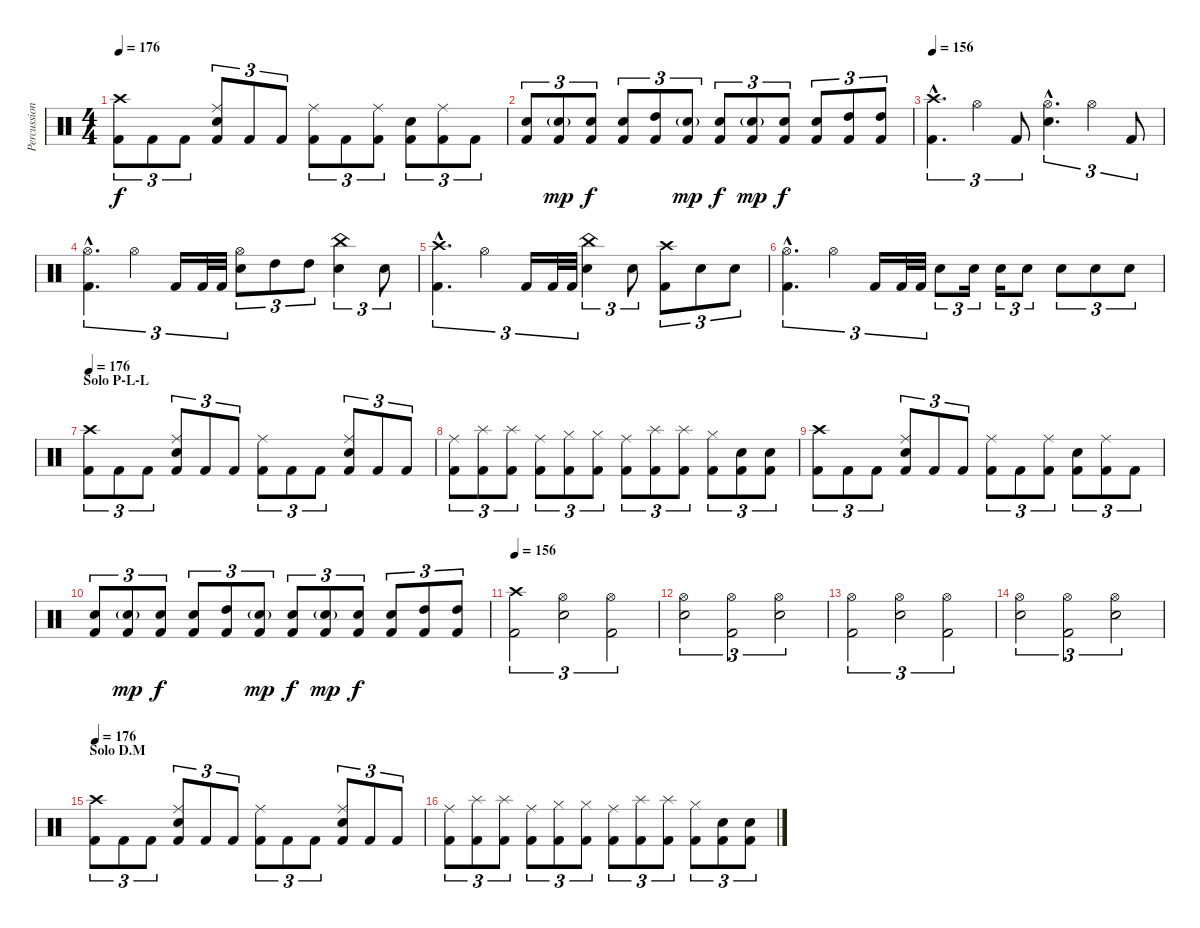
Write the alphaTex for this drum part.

\track ("Percussion" "Percussion") {instrument percussion}
\staff {score}
\articulation defaults
\ts (4 4)
\tempo 176
\clef neutral
\ks c
("Crash high (hit)" "Kick (hit) 2").8{tu (3 2) dy f} "Kick (hit) 2".8{tu (3 2)} "Kick (hit) 2".8{tu (3 2)} ("Ride (middle)" "Electric Snare (hit)" "Kick (hit) 2").8{tu (3 2)} "Kick (hit) 2".8{tu (3 2)} "Kick (hit) 2".8{tu (3 2)} ("Ride (middle)" "Kick (hit) 2").8{tu (3 2)} "Kick (hit) 2".8{tu (3 2)} ("Ride (middle)" "Kick (hit) 2").8{tu (3 2)} ("Electric Snare (hit)" "Kick (hit) 2").8{tu (3 2)} ("Ride (middle)" "Kick (hit) 2").8{tu (3 2)} "Kick (hit) 2".8{tu (3 2)} |
("Electric Snare (hit)" "Kick (hit) 2").8{tu (3 2)} ("Electric Snare (hit)"{g} "Kick (hit) 2").8{tu (3 2) dy mp} ("Electric Snare (hit)" "Kick (hit) 2").8{tu (3 2) dy f} ("Electric Snare (hit)" "Kick (hit) 2").8{tu (3 2)} ("High Tom (hit)" "Kick (hit) 2").8{tu (3 2)} ("Electric Snare (hit)"{g} "Kick (hit) 2").8{tu (3 2) dy mp} ("Electric Snare (hit)" "Kick (hit) 2").8{tu (3 2) dy f} ("Electric Snare (hit)"{g} "Kick (hit) 2").8{tu (3 2) dy mp} ("Electric Snare (hit)" "Kick (hit) 2").8{tu (3 2) dy f} ("Electric Snare (hit)" "Kick (hit) 2").8{tu (3 2)} ("High Tom (hit)" "Kick (hit) 2").8{tu (3 2)} ("High Tom (hit)" "Kick (hit) 2").8{tu (3 2)} |
\tempo 156
("Crash high (hit)"{hac} "Kick (hit) 2"{hac}).4{d tu (3 2)} "Hi-Hat (open)".4{tu (3 2)} "Kick (hit) 2".8{tu (3 2)} ("Hi-Hat (open)"{hac} "Electric Snare (hit)"{hac}).4{d tu (3 2)} "Hi-Hat (open)".4{tu (3 2)} "Kick (hit) 2".8{tu (3 2)} |
("Hi-Hat (open)"{hac} "Kick (hit) 2"{hac}).4{d tu (3 2)} "Hi-Hat (open)".4{tu (3 2)} "Kick (hit) 2".16{tu (3 2)} "Kick (hit) 2".32{tu (3 2)} "Kick (hit) 2".32{tu (3 2)} ("Hi-Hat (open)" "Electric Snare (hit)").8{tu (3 2)} "High Tom (hit)".8{tu (3 2)} "High Tom (hit)".8{tu (3 2)} ("China (hit)" "Electric Snare (hit)").4{tu (3 2)} "Electric Snare (hit)".8{tu (3 2)} |
("Crash high (hit)"{hac} "Kick (hit) 2"{hac}).4{d tu (3 2)} "Hi-Hat (open)".4{tu (3 2)} "Kick (hit) 2".16{tu (3 2)} "Kick (hit) 2".32{tu (3 2)} "Kick (hit) 2".32{tu (3 2)} ("China (hit)" "Electric Snare (hit)").4{tu (3 2)} "Electric Snare (hit)".8{tu (3 2)} ("Crash high (hit)" "Kick (hit) 2").8{tu (3 2)} "Electric Snare (hit)".8{tu (3 2)} "Electric Snare (hit)".8{tu (3 2)} |
("Hi-Hat (open)"{hac} "Kick (hit) 2"{hac}).4{d tu (3 2)} "Hi-Hat (open)".4{tu (3 2)} "Kick (hit) 2".16{tu (3 2)} "Kick (hit) 2".32{tu (3 2)} "Kick (hit) 2".32{tu (3 2)} "Electric Snare (hit)".8{tu (3 2)} "Electric Snare (hit)".16{tu (3 2)} "Electric Snare (hit)".16{tu (3 2)} "Electric Snare (hit)".8{tu (3 2)} "Electric Snare (hit)".8{tu (3 2)} "Electric Snare (hit)".8{tu (3 2)} "Electric Snare (hit)".8{tu (3 2)} |
\section ("" "Solo P-L-L")
\tempo 176
("Crash high (hit)" "Kick (hit) 2").8{tu (3 2)} "Kick (hit) 2".8{tu (3 2)} "Kick (hit) 2".8{tu (3 2)} ("Ride (middle)" "Electric Snare (hit)" "Kick (hit) 2").8{tu (3 2)} "Kick (hit) 2".8{tu (3 2)} "Kick (hit) 2".8{tu (3 2)} ("Ride (middle)" "Kick (hit) 2").8{tu (3 2)} "Kick (hit) 2".8{tu (3 2)} "Kick (hit) 2".8{tu (3 2)} ("Ride (middle)" "Electric Snare (hit)" "Kick (hit) 2").8{tu (3 2)} "Kick (hit) 2".8{tu (3 2)} "Kick (hit) 2".8{tu (3 2)} |
("Ride (middle)" "Kick (hit) 2").8{tu (3 2)} ("Splash (hit)" "Kick (hit) 2").8{tu (3 2)} ("Splash (hit)" "Kick (hit) 2").8{tu (3 2)} ("Ride (middle)" "Kick (hit) 2").8{tu (3 2)} ("Hi-Hat (closed)" "Kick (hit) 2").8{tu (3 2)} ("Hi-Hat (closed)" "Kick (hit) 2").8{tu (3 2)} ("Ride (middle)" "Kick (hit) 2").8{tu (3 2)} ("Splash (hit)" "Kick (hit) 2").8{tu (3 2)} ("Splash (hit)" "Kick (hit) 2").8{tu (3 2)} ("Hi-Hat (closed)" "Kick (hit) 2").8{tu (3 2)} ("Electric Snare (hit)" "Kick (hit) 2").8{tu (3 2)} ("Electric Snare (hit)" "Kick (hit) 2").8{tu (3 2)} |
("Crash high (hit)" "Kick (hit) 2").8{tu (3 2)} "Kick (hit) 2".8{tu (3 2)} "Kick (hit) 2".8{tu (3 2)} ("Ride (middle)" "Electric Snare (hit)" "Kick (hit) 2").8{tu (3 2)} "Kick (hit) 2".8{tu (3 2)} "Kick (hit) 2".8{tu (3 2)} ("Ride (middle)" "Kick (hit) 2").8{tu (3 2)} "Kick (hit) 2".8{tu (3 2)} ("Ride (middle)" "Kick (hit) 2").8{tu (3 2)} ("Electric Snare (hit)" "Kick (hit) 2").8{tu (3 2)} ("Ride (middle)" "Kick (hit) 2").8{tu (3 2)} "Kick (hit) 2".8{tu (3 2)} |
("Electric Snare (hit)" "Kick (hit) 2").8{tu (3 2)} ("Electric Snare (hit)"{g} "Kick (hit) 2").8{tu (3 2) dy mp} ("Electric Snare (hit)" "Kick (hit) 2").8{tu (3 2) dy f} ("Electric Snare (hit)" "Kick (hit) 2").8{tu (3 2)} ("High Tom (hit)" "Kick (hit) 2").8{tu (3 2)} ("Electric Snare (hit)"{g} "Kick (hit) 2").8{tu (3 2) dy mp} ("Electric Snare (hit)" "Kick (hit) 2").8{tu (3 2) dy f} ("Electric Snare (hit)"{g} "Kick (hit) 2").8{tu (3 2) dy mp} ("Electric Snare (hit)" "Kick (hit) 2").8{tu (3 2) dy f} ("Electric Snare (hit)" "Kick (hit) 2").8{tu (3 2)} ("High Tom (hit)" "Kick (hit) 2").8{tu (3 2)} ("High Tom (hit)" "Kick (hit) 2").8{tu (3 2)} |
\tempo 156
("Crash high (hit)" "Kick (hit) 2").2{tu (3 2)} ("Hi-Hat (open)" "Electric Snare (hit)").2{tu (3 2)} ("Hi-Hat (open)" "Kick (hit) 2").2{tu (3 2)} |
("Hi-Hat (open)" "Electric Snare (hit)").2{tu (3 2)} ("Hi-Hat (open)" "Kick (hit) 2").2{tu (3 2)} ("Hi-Hat (open)" "Electric Snare (hit)").2{tu (3 2)} |
("Hi-Hat (open)" "Kick (hit) 2").2{tu (3 2)} ("Hi-Hat (open)" "Electric Snare (hit)").2{tu (3 2)} ("Hi-Hat (open)" "Kick (hit) 2").2{tu (3 2)} |
("Hi-Hat (open)" "Electric Snare (hit)").2{tu (3 2)} ("Hi-Hat (open)" "Kick (hit) 2").2{tu (3 2)} ("Hi-Hat (open)" "Electric Snare (hit)").2{tu (3 2)} |
\section ("" "Solo D.M")
\tempo 176
("Crash high (hit)" "Kick (hit) 2").8{tu (3 2)} "Kick (hit) 2".8{tu (3 2)} "Kick (hit) 2".8{tu (3 2)} ("Ride (middle)" "Electric Snare (hit)" "Kick (hit) 2").8{tu (3 2)} "Kick (hit) 2".8{tu (3 2)} "Kick (hit) 2".8{tu (3 2)} ("Ride (middle)" "Kick (hit) 2").8{tu (3 2)} "Kick (hit) 2".8{tu (3 2)} "Kick (hit) 2".8{tu (3 2)} ("Ride (middle)" "Electric Snare (hit)" "Kick (hit) 2").8{tu (3 2)} "Kick (hit) 2".8{tu (3 2)} "Kick (hit) 2".8{tu (3 2)} |
("Ride (middle)" "Kick (hit) 2").8{tu (3 2)} ("Splash (hit)" "Kick (hit) 2").8{tu (3 2)} ("Splash (hit)" "Kick (hit) 2").8{tu (3 2)} ("Ride (middle)" "Kick (hit) 2").8{tu (3 2)} ("Hi-Hat (closed)" "Kick (hit) 2").8{tu (3 2)} ("Hi-Hat (closed)" "Kick (hit) 2").8{tu (3 2)} ("Ride (middle)" "Kick (hit) 2").8{tu (3 2)} ("Splash (hit)" "Kick (hit) 2").8{tu (3 2)} ("Splash (hit)" "Kick (hit) 2").8{tu (3 2)} ("Hi-Hat (closed)" "Kick (hit) 2").8{tu (3 2)} ("Electric Snare (hit)" "Kick (hit) 2").8{tu (3 2)} ("Electric Snare (hit)" "Kick (hit) 2").8{tu (3 2)}
